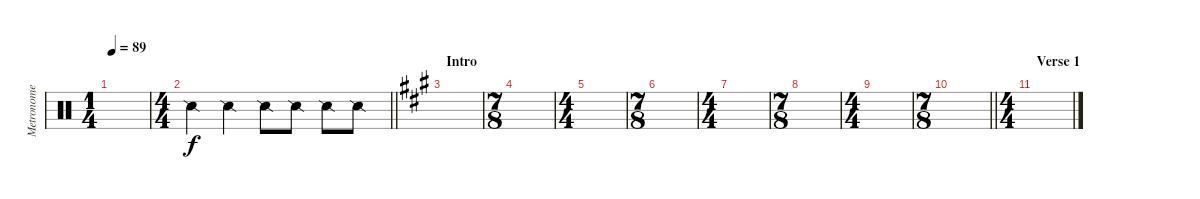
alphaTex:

\track ("Metronome" "Metronome") {instrument percussion}
\staff {score}
\articulation defaults
\ts (1 4)
\tempo 89
\clef neutral
\ks c
|
\ts (4 4)
\barLineRight lightlight "Snare (side stick) 2".4 "Snare (side stick) 2".4 "Snare (side stick) 2".8 "Snare (side stick) 2".8 "Snare (side stick) 2".8 "Snare (side stick) 2".8
|
\section ("" "Intro")
\ks a
|
\ts (7 8)
|
\ts (4 4)
|
\ts (7 8)
|
\ts (4 4)
|
\ts (7 8)
|
\ts (4 4)
|
\ts (7 8)
\barLineRight lightlight
|
\ts (4 4)
\section ("" "Verse 1")
